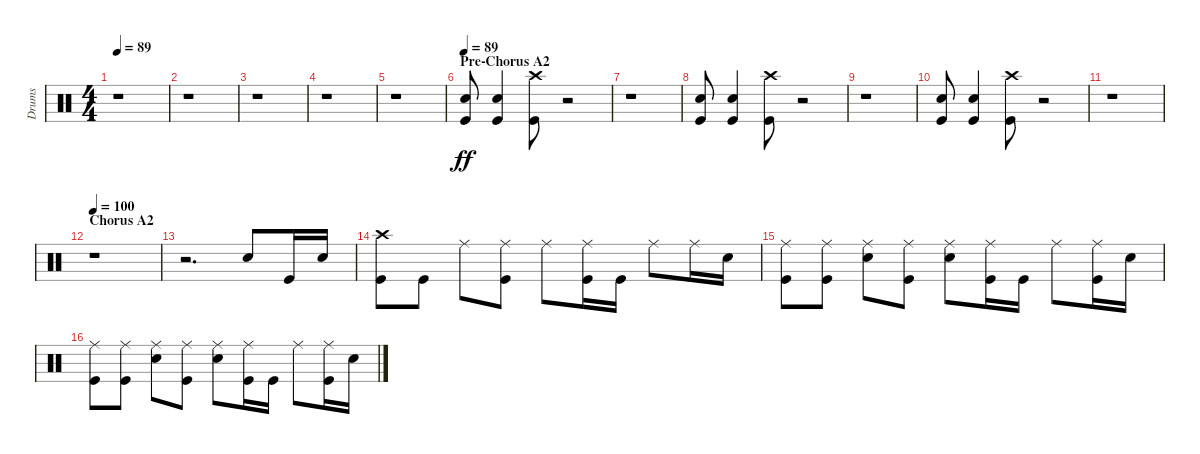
\track ("Drums" "Drums") {instrument percussion}
\staff {score}
\articulation defaults
\ts (4 4)
\tempo 89
\clef neutral
\ks c
r.1{dy ff} |
r.1 |
r.1 |
r.1 |
r.1 |
\section ("" "Pre-Chorus A2")
\tempo 89
("Electric Snare (hit)" "Kick (hit)").8 ("Electric Snare (hit)" "Kick (hit)").4 ("Crash high (hit)" "Kick (hit)").8 r.2 |
r.1 |
("Electric Snare (hit)" "Kick (hit)").8 ("Electric Snare (hit)" "Kick (hit)").4 ("Crash high (hit)" "Kick (hit)").8 r.2 |
r.1 |
("Electric Snare (hit)" "Kick (hit)").8 ("Electric Snare (hit)" "Kick (hit)").4 ("Crash high (hit)" "Kick (hit)").8 r.2 |
r.1 |
\section ("" "Chorus A2")
\tempo 100
r.1 |
r.2{d} "Electric Snare (hit)".8 "Kick (hit)".16 "Electric Snare (hit)".16 |
("Crash high (hit)" "Kick (hit)").8 "Kick (hit)".8 "Ride (middle)".8 ("Ride (middle)" "Kick (hit)").8 "Ride (middle)".8 ("Ride (middle)" "Kick (hit)").16 "Kick (hit)".16 "Ride (middle)".8 "Ride (middle)".16 "Electric Snare (hit)".16 |
("Ride (middle)" "Kick (hit)").8 ("Ride (middle)" "Kick (hit)").8 ("Ride (middle)" "Electric Snare (hit)").8 ("Ride (middle)" "Kick (hit)").8 ("Ride (middle)" "Electric Snare (hit)").8 ("Ride (middle)" "Kick (hit)").16 "Kick (hit)".16 "Ride (middle)".8 ("Ride (middle)" "Kick (hit)").16 "Electric Snare (hit)".16 |
("Ride (middle)" "Kick (hit)").8 ("Ride (middle)" "Kick (hit)").8 ("Ride (middle)" "Electric Snare (hit)").8 ("Ride (middle)" "Kick (hit)").8 ("Ride (middle)" "Electric Snare (hit)").8 ("Ride (middle)" "Kick (hit)").16 "Kick (hit)".16 "Ride (middle)".8 ("Ride (middle)" "Kick (hit)").16 "Electric Snare (hit)".16
